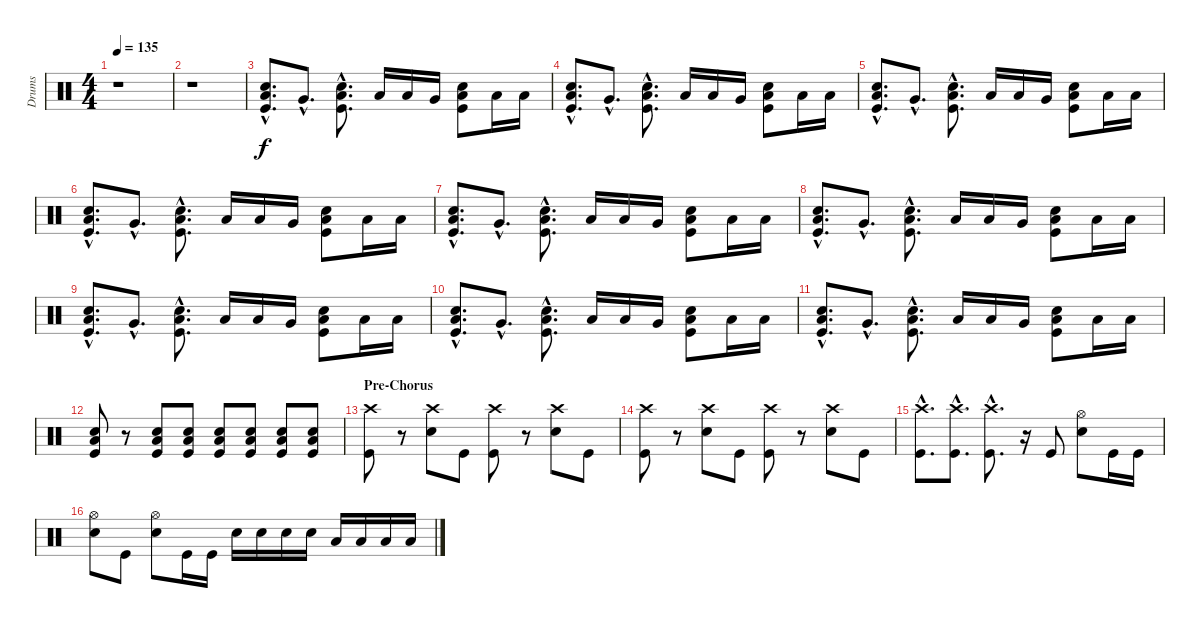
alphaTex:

\track ("Drums" "Drums") {instrument percussion}
\staff {score}
\articulation defaults
\ts (4 4)
\tempo 135
\clef neutral
\ks c
r.1{dy f} |
r.1 |
("Snare (hit) 2"{hac} "Low Floor Tom (hit)"{hac} "Kick (hit)"{hac}).8{d} "Very Low Tom (hit)"{hac}.8{d} ("Snare (hit) 2"{hac} "Low Tom (hit)"{hac} "Kick (hit)"{hac}).8{d} "Low Floor Tom (hit)".16 "Low Floor Tom (hit)".16 "Very Low Tom (hit)".16 ("Snare (hit) 2" "Low Tom (hit)" "Kick (hit)").8 "Low Floor Tom (hit)".16 "Low Floor Tom (hit)".16 |
("Snare (hit) 2"{hac} "Low Floor Tom (hit)"{hac} "Kick (hit)"{hac}).8{d} "Very Low Tom (hit)"{hac}.8{d} ("Snare (hit) 2"{hac} "Low Tom (hit)"{hac} "Kick (hit)"{hac}).8{d} "Low Floor Tom (hit)".16 "Low Floor Tom (hit)".16 "Very Low Tom (hit)".16 ("Snare (hit) 2" "Low Tom (hit)" "Kick (hit)").8 "Low Floor Tom (hit)".16 "Low Floor Tom (hit)".16 |
("Snare (hit) 2"{hac} "Low Floor Tom (hit)"{hac} "Kick (hit)"{hac}).8{d} "Very Low Tom (hit)"{hac}.8{d} ("Snare (hit) 2"{hac} "Low Tom (hit)"{hac} "Kick (hit)"{hac}).8{d} "Low Floor Tom (hit)".16 "Low Floor Tom (hit)".16 "Very Low Tom (hit)".16 ("Snare (hit) 2" "Low Tom (hit)" "Kick (hit)").8 "Low Floor Tom (hit)".16 "Low Floor Tom (hit)".16 |
("Snare (hit) 2"{hac} "Low Floor Tom (hit)"{hac} "Kick (hit)"{hac}).8{d} "Very Low Tom (hit)"{hac}.8{d} ("Snare (hit) 2"{hac} "Low Tom (hit)"{hac} "Kick (hit)"{hac}).8{d} "Low Floor Tom (hit)".16 "Low Floor Tom (hit)".16 "Very Low Tom (hit)".16 ("Snare (hit) 2" "Low Tom (hit)" "Kick (hit)").8 "Low Floor Tom (hit)".16 "Low Floor Tom (hit)".16 |
("Snare (hit) 2"{hac} "Low Floor Tom (hit)"{hac} "Kick (hit)"{hac}).8{d} "Very Low Tom (hit)"{hac}.8{d} ("Snare (hit) 2"{hac} "Low Tom (hit)"{hac} "Kick (hit)"{hac}).8{d} "Low Floor Tom (hit)".16 "Low Floor Tom (hit)".16 "Very Low Tom (hit)".16 ("Snare (hit) 2" "Low Tom (hit)" "Kick (hit)").8 "Low Floor Tom (hit)".16 "Low Floor Tom (hit)".16 |
("Snare (hit) 2"{hac} "Low Floor Tom (hit)"{hac} "Kick (hit)"{hac}).8{d} "Very Low Tom (hit)"{hac}.8{d} ("Snare (hit) 2"{hac} "Low Tom (hit)"{hac} "Kick (hit)"{hac}).8{d} "Low Floor Tom (hit)".16 "Low Floor Tom (hit)".16 "Very Low Tom (hit)".16 ("Snare (hit) 2" "Low Tom (hit)" "Kick (hit)").8 "Low Floor Tom (hit)".16 "Low Floor Tom (hit)".16 |
("Snare (hit) 2"{hac} "Low Floor Tom (hit)"{hac} "Kick (hit)"{hac}).8{d} "Very Low Tom (hit)"{hac}.8{d} ("Snare (hit) 2"{hac} "Low Tom (hit)"{hac} "Kick (hit)"{hac}).8{d} "Low Floor Tom (hit)".16 "Low Floor Tom (hit)".16 "Very Low Tom (hit)".16 ("Snare (hit) 2" "Low Tom (hit)" "Kick (hit)").8 "Low Floor Tom (hit)".16 "Low Floor Tom (hit)".16 |
("Snare (hit) 2"{hac} "Low Floor Tom (hit)"{hac} "Kick (hit)"{hac}).8{d} "Very Low Tom (hit)"{hac}.8{d} ("Snare (hit) 2"{hac} "Low Tom (hit)"{hac} "Kick (hit)"{hac}).8{d} "Low Floor Tom (hit)".16 "Low Floor Tom (hit)".16 "Very Low Tom (hit)".16 ("Snare (hit) 2" "Low Tom (hit)" "Kick (hit)").8 "Low Floor Tom (hit)".16 "Low Floor Tom (hit)".16 |
("Snare (hit) 2"{hac} "Low Floor Tom (hit)"{hac} "Kick (hit)"{hac}).8{d} "Very Low Tom (hit)"{hac}.8{d} ("Snare (hit) 2"{hac} "Low Tom (hit)"{hac} "Kick (hit)"{hac}).8{d} "Low Floor Tom (hit)".16 "Low Floor Tom (hit)".16 "Very Low Tom (hit)".16 ("Snare (hit) 2" "Low Tom (hit)" "Kick (hit)").8 "Low Floor Tom (hit)".16 "Low Floor Tom (hit)".16 |
("Snare (hit) 2" "Low Floor Tom (hit)" "Kick (hit)").8 r.8{volume 0} ("Snare (hit) 2" "Low Floor Tom (hit)" "Kick (hit)").8{volume 11} ("Snare (hit) 2" "Low Floor Tom (hit)" "Kick (hit)").8 ("Snare (hit) 2" "Low Floor Tom (hit)" "Kick (hit)").8 ("Snare (hit) 2" "Low Floor Tom (hit)" "Kick (hit)").8 ("Snare (hit) 2" "Low Floor Tom (hit)" "Kick (hit)").8 ("Snare (hit) 2" "Low Floor Tom (hit)" "Kick (hit)").8 |
\section ("" "Pre-Chorus")
("Crash high (hit)" "Kick (hit)").8 r.8 ("Crash high (hit)" "Snare (hit) 2").8 "Kick (hit)".8 ("Crash high (hit)" "Kick (hit)").8 r.8 ("Crash high (hit)" "Snare (hit) 2").8 "Kick (hit)".8 |
("Crash high (hit)" "Kick (hit)").8 r.8 ("Crash high (hit)" "Snare (hit) 2").8 "Kick (hit)".8 ("Crash high (hit)" "Kick (hit)").8 r.8 ("Crash high (hit)" "Snare (hit) 2").8 "Kick (hit)".8 |
("Crash high (hit)"{hac} "Kick (hit)"{hac}).8{d} ("Crash high (hit)"{hac} "Kick (hit)"{hac}).8{d} ("Crash high (hit)"{hac} "Kick (hit)"{hac}).8{d} r.16 "Kick (hit)".8 ("Hi-Hat (open)" "Snare (hit) 2").8 "Kick (hit)".16 "Kick (hit)".16 |
("Hi-Hat (open)" "Snare (hit) 2").8 "Kick (hit)".8 ("Hi-Hat (open)" "Snare (hit) 2").8 "Kick (hit)".16 "Kick (hit)".16 "Snare (hit) 2".16 "Snare (hit) 2".16 "Snare (hit) 2".16 "Snare (hit) 2".16 "Low Tom (hit)".16 "Low Tom (hit)".16 "Low Floor Tom (hit)".16 "Low Floor Tom (hit)".16
